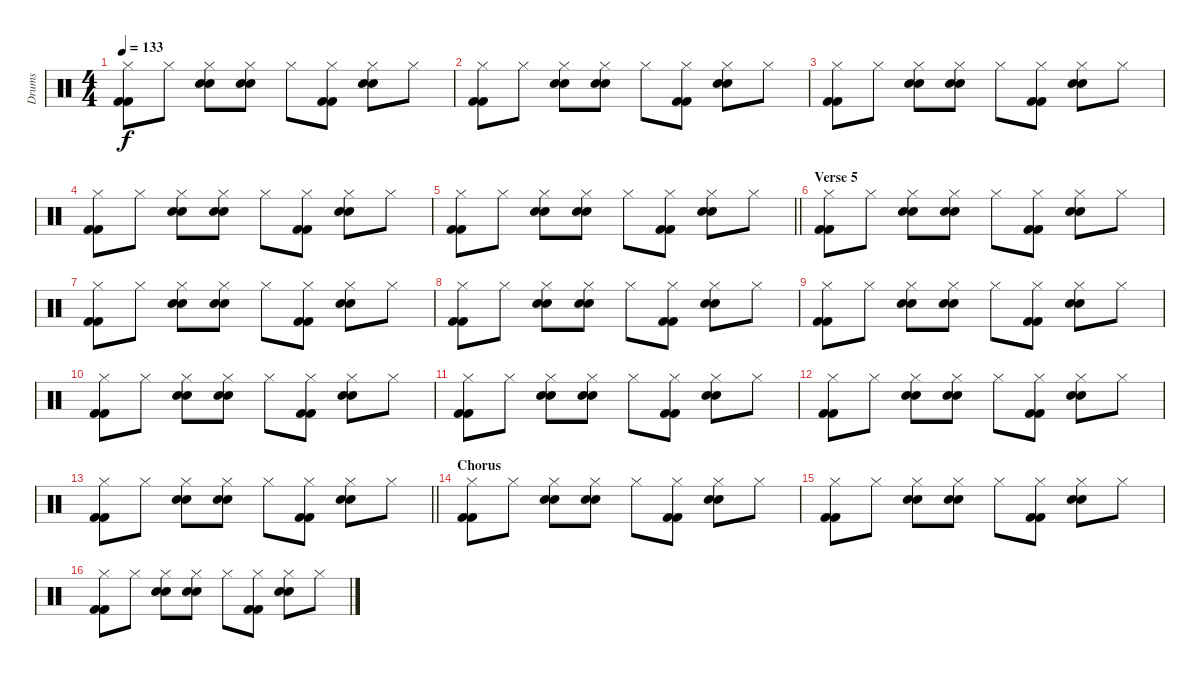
\track ("Drums" "Drums") {instrument percussion}
\staff {score}
\articulation defaults
\ts (4 4)
\tempo 133
\clef neutral
\ks c
("Kick (hit) 2" "Kick (hit) 2" "Hi-Hat (closed)").8{dy f} "Hi-Hat (closed)".8 ("Snare (hit) 2" "Hi-Hat (closed)" "Electric Snare (hit)").8 ("Snare (hit) 2" "Hi-Hat (closed)" "Electric Snare (hit)").8 "Hi-Hat (closed)".8 ("Kick (hit) 2" "Kick (hit) 2" "Hi-Hat (closed)").8 ("Snare (hit) 2" "Hi-Hat (closed)" "Electric Snare (hit)").8 "Hi-Hat (closed)".8 |
("Kick (hit) 2" "Kick (hit) 2" "Hi-Hat (closed)").8 "Hi-Hat (closed)".8 ("Snare (hit) 2" "Hi-Hat (closed)" "Electric Snare (hit)").8 ("Snare (hit) 2" "Hi-Hat (closed)" "Electric Snare (hit)").8 "Hi-Hat (closed)".8 ("Kick (hit) 2" "Kick (hit) 2" "Hi-Hat (closed)").8 ("Snare (hit) 2" "Hi-Hat (closed)" "Electric Snare (hit)").8 "Hi-Hat (closed)".8 |
("Kick (hit) 2" "Kick (hit) 2" "Hi-Hat (closed)").8 "Hi-Hat (closed)".8 ("Snare (hit) 2" "Hi-Hat (closed)" "Electric Snare (hit)").8 ("Snare (hit) 2" "Hi-Hat (closed)" "Electric Snare (hit)").8 "Hi-Hat (closed)".8 ("Kick (hit) 2" "Kick (hit) 2" "Hi-Hat (closed)").8 ("Snare (hit) 2" "Hi-Hat (closed)" "Electric Snare (hit)").8 "Hi-Hat (closed)".8 |
("Kick (hit) 2" "Kick (hit) 2" "Hi-Hat (closed)").8 "Hi-Hat (closed)".8 ("Snare (hit) 2" "Hi-Hat (closed)" "Electric Snare (hit)").8 ("Snare (hit) 2" "Hi-Hat (closed)" "Electric Snare (hit)").8 "Hi-Hat (closed)".8 ("Kick (hit) 2" "Kick (hit) 2" "Hi-Hat (closed)").8 ("Snare (hit) 2" "Hi-Hat (closed)" "Electric Snare (hit)").8 "Hi-Hat (closed)".8 |
\barLineRight lightlight
("Kick (hit) 2" "Kick (hit) 2" "Hi-Hat (closed)").8 "Hi-Hat (closed)".8 ("Snare (hit) 2" "Hi-Hat (closed)" "Electric Snare (hit)").8 ("Snare (hit) 2" "Hi-Hat (closed)" "Electric Snare (hit)").8 "Hi-Hat (closed)".8 ("Kick (hit) 2" "Kick (hit) 2" "Hi-Hat (closed)").8 ("Snare (hit) 2" "Hi-Hat (closed)" "Electric Snare (hit)").8 "Hi-Hat (closed)".8 |
\section ("" "Verse 5")
("Kick (hit) 2" "Kick (hit) 2" "Hi-Hat (closed)").8 "Hi-Hat (closed)".8 ("Snare (hit) 2" "Hi-Hat (closed)" "Electric Snare (hit)").8 ("Snare (hit) 2" "Hi-Hat (closed)" "Electric Snare (hit)").8 "Hi-Hat (closed)".8 ("Kick (hit) 2" "Kick (hit) 2" "Hi-Hat (closed)").8 ("Snare (hit) 2" "Hi-Hat (closed)" "Electric Snare (hit)").8 "Hi-Hat (closed)".8 |
("Kick (hit) 2" "Kick (hit) 2" "Hi-Hat (closed)").8 "Hi-Hat (closed)".8 ("Snare (hit) 2" "Hi-Hat (closed)" "Electric Snare (hit)").8 ("Snare (hit) 2" "Hi-Hat (closed)" "Electric Snare (hit)").8 "Hi-Hat (closed)".8 ("Kick (hit) 2" "Kick (hit) 2" "Hi-Hat (closed)").8 ("Snare (hit) 2" "Hi-Hat (closed)" "Electric Snare (hit)").8 "Hi-Hat (closed)".8 |
("Kick (hit) 2" "Kick (hit) 2" "Hi-Hat (closed)").8 "Hi-Hat (closed)".8 ("Snare (hit) 2" "Hi-Hat (closed)" "Electric Snare (hit)").8 ("Snare (hit) 2" "Hi-Hat (closed)" "Electric Snare (hit)").8 "Hi-Hat (closed)".8 ("Kick (hit) 2" "Kick (hit) 2" "Hi-Hat (closed)").8 ("Snare (hit) 2" "Hi-Hat (closed)" "Electric Snare (hit)").8 "Hi-Hat (closed)".8 |
("Kick (hit) 2" "Kick (hit) 2" "Hi-Hat (closed)").8 "Hi-Hat (closed)".8 ("Snare (hit) 2" "Hi-Hat (closed)" "Electric Snare (hit)").8 ("Snare (hit) 2" "Hi-Hat (closed)" "Electric Snare (hit)").8 "Hi-Hat (closed)".8 ("Kick (hit) 2" "Kick (hit) 2" "Hi-Hat (closed)").8 ("Snare (hit) 2" "Hi-Hat (closed)" "Electric Snare (hit)").8 "Hi-Hat (closed)".8 |
("Kick (hit) 2" "Kick (hit) 2" "Hi-Hat (closed)").8 "Hi-Hat (closed)".8 ("Snare (hit) 2" "Hi-Hat (closed)" "Electric Snare (hit)").8 ("Snare (hit) 2" "Hi-Hat (closed)" "Electric Snare (hit)").8 "Hi-Hat (closed)".8 ("Kick (hit) 2" "Kick (hit) 2" "Hi-Hat (closed)").8 ("Snare (hit) 2" "Hi-Hat (closed)" "Electric Snare (hit)").8 "Hi-Hat (closed)".8 |
("Kick (hit) 2" "Kick (hit) 2" "Hi-Hat (closed)").8 "Hi-Hat (closed)".8 ("Snare (hit) 2" "Hi-Hat (closed)" "Electric Snare (hit)").8 ("Snare (hit) 2" "Hi-Hat (closed)" "Electric Snare (hit)").8 "Hi-Hat (closed)".8 ("Kick (hit) 2" "Kick (hit) 2" "Hi-Hat (closed)").8 ("Snare (hit) 2" "Hi-Hat (closed)" "Electric Snare (hit)").8 "Hi-Hat (closed)".8 |
("Kick (hit) 2" "Kick (hit) 2" "Hi-Hat (closed)").8 "Hi-Hat (closed)".8 ("Snare (hit) 2" "Hi-Hat (closed)" "Electric Snare (hit)").8 ("Snare (hit) 2" "Hi-Hat (closed)" "Electric Snare (hit)").8 "Hi-Hat (closed)".8 ("Kick (hit) 2" "Kick (hit) 2" "Hi-Hat (closed)").8 ("Snare (hit) 2" "Hi-Hat (closed)" "Electric Snare (hit)").8 "Hi-Hat (closed)".8 |
\barLineRight lightlight
("Kick (hit) 2" "Kick (hit) 2" "Hi-Hat (closed)").8 "Hi-Hat (closed)".8 ("Snare (hit) 2" "Hi-Hat (closed)" "Electric Snare (hit)").8 ("Snare (hit) 2" "Hi-Hat (closed)" "Electric Snare (hit)").8 "Hi-Hat (closed)".8 ("Kick (hit) 2" "Kick (hit) 2" "Hi-Hat (closed)").8 ("Snare (hit) 2" "Hi-Hat (closed)" "Electric Snare (hit)").8 "Hi-Hat (closed)".8 |
\section ("" "Chorus")
("Kick (hit) 2" "Kick (hit) 2" "Hi-Hat (closed)").8 "Hi-Hat (closed)".8 ("Snare (hit) 2" "Hi-Hat (closed)" "Electric Snare (hit)").8 ("Snare (hit) 2" "Hi-Hat (closed)" "Electric Snare (hit)").8 "Hi-Hat (closed)".8 ("Kick (hit) 2" "Kick (hit) 2" "Hi-Hat (closed)").8 ("Snare (hit) 2" "Hi-Hat (closed)" "Electric Snare (hit)").8 "Hi-Hat (closed)".8 |
("Kick (hit) 2" "Kick (hit) 2" "Hi-Hat (closed)").8 "Hi-Hat (closed)".8 ("Snare (hit) 2" "Hi-Hat (closed)" "Electric Snare (hit)").8 ("Snare (hit) 2" "Hi-Hat (closed)" "Electric Snare (hit)").8 "Hi-Hat (closed)".8 ("Kick (hit) 2" "Kick (hit) 2" "Hi-Hat (closed)").8 ("Snare (hit) 2" "Hi-Hat (closed)" "Electric Snare (hit)").8 "Hi-Hat (closed)".8 |
("Kick (hit) 2" "Kick (hit) 2" "Hi-Hat (closed)").8 "Hi-Hat (closed)".8 ("Snare (hit) 2" "Hi-Hat (closed)" "Electric Snare (hit)").8 ("Snare (hit) 2" "Hi-Hat (closed)" "Electric Snare (hit)").8 "Hi-Hat (closed)".8 ("Kick (hit) 2" "Kick (hit) 2" "Hi-Hat (closed)").8 ("Snare (hit) 2" "Hi-Hat (closed)" "Electric Snare (hit)").8 "Hi-Hat (closed)".8
